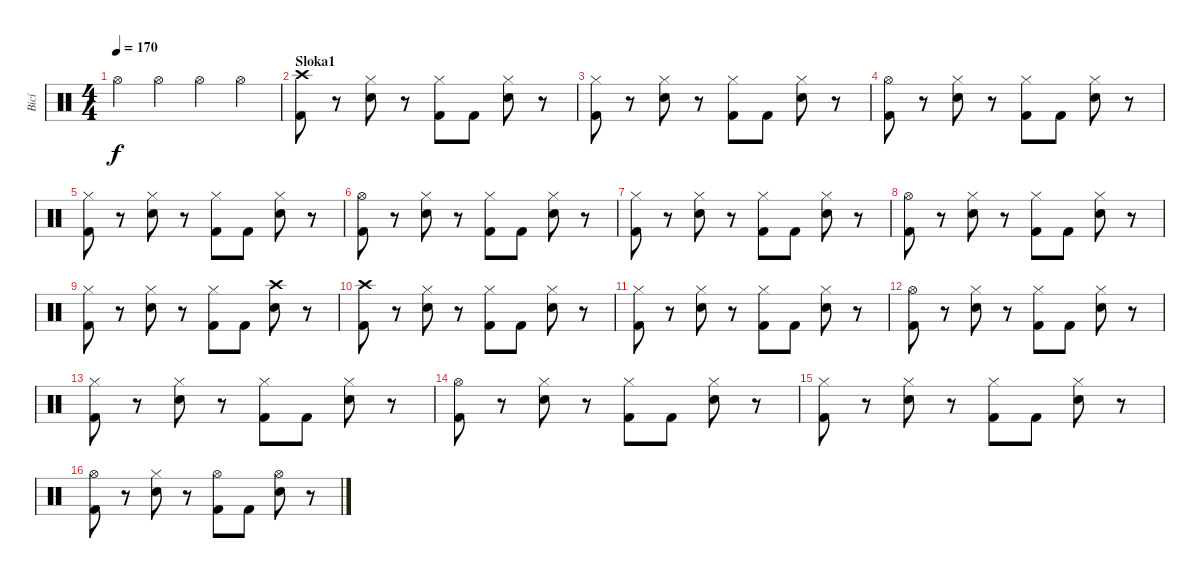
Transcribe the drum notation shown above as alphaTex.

\track ("Bicí" "Bicí") {instrument percussion}
\staff {score}
\articulation defaults
\ts (4 4)
\tempo 170
\clef neutral
\ks c "Hi-Hat (open)".4{dy f} "Hi-Hat (open)".4 "Hi-Hat (open)".4 "Hi-Hat (open)".4
|
\section ("" "Sloka1")
("Crash high (hit)" "Kick (hit) 2").8 r.8 ("Hi-Hat (closed)" "Snare (hit) 2").8 r.8 ("Hi-Hat (closed)" "Kick (hit) 2").8 "Kick (hit) 2".8 ("Hi-Hat (closed)" "Snare (hit) 2").8 r.8 |
("Hi-Hat (closed)" "Kick (hit) 2").8 r.8 ("Hi-Hat (closed)" "Snare (hit) 2").8 r.8 ("Hi-Hat (closed)" "Kick (hit) 2").8 "Kick (hit) 2".8 ("Hi-Hat (closed)" "Snare (hit) 2").8 r.8 |
("Hi-Hat (open)" "Kick (hit) 2").8 r.8 ("Hi-Hat (closed)" "Snare (hit) 2").8 r.8 ("Hi-Hat (closed)" "Kick (hit) 2").8 "Kick (hit) 2".8 ("Hi-Hat (closed)" "Snare (hit) 2").8 r.8 |
("Hi-Hat (closed)" "Kick (hit) 2").8 r.8 ("Hi-Hat (closed)" "Snare (hit) 2").8 r.8 ("Hi-Hat (closed)" "Kick (hit) 2").8 "Kick (hit) 2".8 ("Hi-Hat (closed)" "Snare (hit) 2").8 r.8 |
("Hi-Hat (open)" "Kick (hit) 2").8 r.8 ("Hi-Hat (closed)" "Snare (hit) 2").8 r.8 ("Hi-Hat (closed)" "Kick (hit) 2").8 "Kick (hit) 2".8 ("Hi-Hat (closed)" "Snare (hit) 2").8 r.8 |
("Hi-Hat (closed)" "Kick (hit) 2").8 r.8 ("Hi-Hat (closed)" "Snare (hit) 2").8 r.8 ("Hi-Hat (closed)" "Kick (hit) 2").8 "Kick (hit) 2".8 ("Hi-Hat (closed)" "Snare (hit) 2").8 r.8 |
("Hi-Hat (open)" "Kick (hit) 2").8 r.8 ("Hi-Hat (closed)" "Snare (hit) 2").8 r.8 ("Hi-Hat (closed)" "Kick (hit) 2").8 "Kick (hit) 2".8 ("Hi-Hat (closed)" "Snare (hit) 2").8 r.8 |
("Hi-Hat (closed)" "Kick (hit) 2").8 r.8 ("Hi-Hat (closed)" "Snare (hit) 2").8 r.8 ("Hi-Hat (closed)" "Kick (hit) 2").8 "Kick (hit) 2".8 ("Crash high (hit)" "Snare (hit) 2").8 r.8 |
("Crash high (hit)" "Kick (hit) 2").8 r.8 ("Hi-Hat (closed)" "Snare (hit) 2").8 r.8 ("Hi-Hat (closed)" "Kick (hit) 2").8 "Kick (hit) 2".8 ("Hi-Hat (closed)" "Snare (hit) 2").8 r.8 |
("Hi-Hat (closed)" "Kick (hit) 2").8 r.8 ("Hi-Hat (closed)" "Snare (hit) 2").8 r.8 ("Hi-Hat (closed)" "Kick (hit) 2").8 "Kick (hit) 2".8 ("Hi-Hat (closed)" "Snare (hit) 2").8 r.8 |
("Hi-Hat (open)" "Kick (hit) 2").8 r.8 ("Hi-Hat (closed)" "Snare (hit) 2").8 r.8 ("Hi-Hat (closed)" "Kick (hit) 2").8 "Kick (hit) 2".8 ("Hi-Hat (closed)" "Snare (hit) 2").8 r.8 |
("Hi-Hat (closed)" "Kick (hit) 2").8 r.8 ("Hi-Hat (closed)" "Snare (hit) 2").8 r.8 ("Hi-Hat (closed)" "Kick (hit) 2").8 "Kick (hit) 2".8 ("Hi-Hat (closed)" "Snare (hit) 2").8 r.8 |
("Hi-Hat (open)" "Kick (hit) 2").8 r.8 ("Hi-Hat (closed)" "Snare (hit) 2").8 r.8 ("Hi-Hat (closed)" "Kick (hit) 2").8 "Kick (hit) 2".8 ("Hi-Hat (closed)" "Snare (hit) 2").8 r.8 |
("Hi-Hat (closed)" "Kick (hit) 2").8 r.8 ("Hi-Hat (closed)" "Snare (hit) 2").8 r.8 ("Hi-Hat (closed)" "Kick (hit) 2").8 "Kick (hit) 2".8 ("Hi-Hat (closed)" "Snare (hit) 2").8 r.8 |
("Hi-Hat (open)" "Kick (hit) 2").8 r.8 ("Hi-Hat (closed)" "Snare (hit) 2").8 r.8 ("Hi-Hat (open)" "Kick (hit) 2").8 "Kick (hit) 2".8 ("Hi-Hat (open)" "Snare (hit) 2").8 r.8
